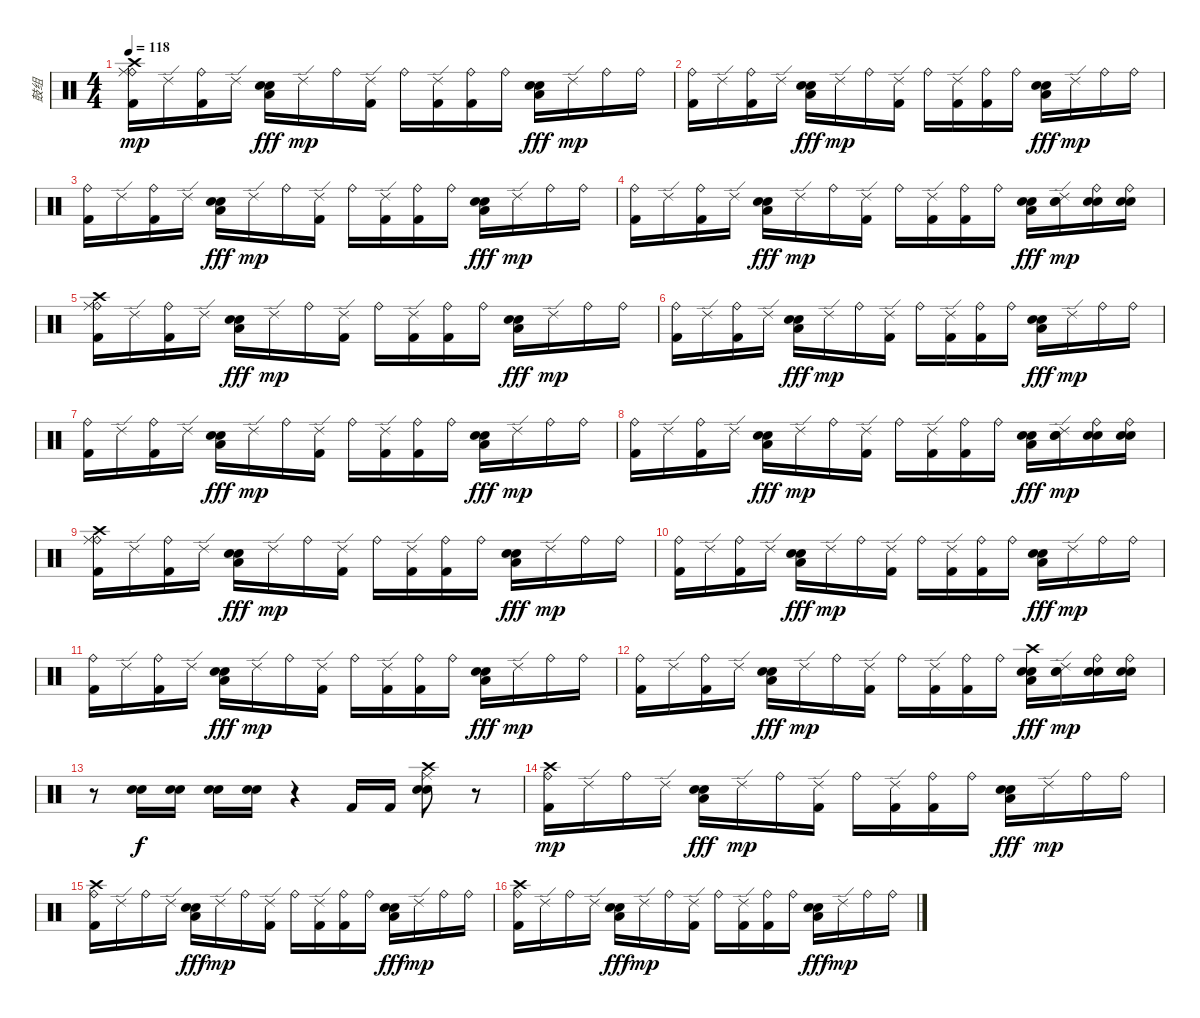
\track ("鼓组" "鼓组") {instrument percussion}
\staff {score}
\articulation defaults
\ts (4 4)
\tempo 118
\clef neutral
\ks c
("Ride (bell)" "Crash high (hit)" "Ride (middle)" "Kick (hit) 2").16{dy mp} "Ride (edge) 2".16 ("Ride (bell)" "Kick (hit) 2").16 "Ride (edge) 2".16 ("Low Tom (hit)" "Snare (hit) 2" "Electric Snare (hit)").16{dy fff} "Ride (edge) 2".16{dy mp} "Ride (bell)".16 ("Ride (edge) 2" "Kick (hit) 2").16 "Ride (bell)".16 ("Ride (edge) 2" "Kick (hit) 2").16 ("Ride (bell)" "Kick (hit) 2").16 "Ride (bell)".16 ("Low Tom (hit)" "Electric Snare (hit)" "Snare (hit) 2").16{dy fff} "Ride (edge) 2".16{dy mp} "Ride (bell)".16 "Ride (bell)".16 |
("Ride (bell)" "Kick (hit) 2").16 "Ride (edge) 2".16 ("Ride (bell)" "Kick (hit) 2").16 "Ride (edge) 2".16 ("Low Tom (hit)" "Snare (hit) 2" "Electric Snare (hit)").16{dy fff} "Ride (edge) 2".16{dy mp} "Ride (bell)".16 ("Ride (edge) 2" "Kick (hit) 2").16 "Ride (bell)".16 ("Ride (edge) 2" "Kick (hit) 2").16 ("Ride (bell)" "Kick (hit) 2").16 "Ride (bell)".16 ("Low Tom (hit)" "Electric Snare (hit)" "Snare (hit) 2").16{dy fff} "Ride (edge) 2".16{dy mp} "Ride (bell)".16 "Ride (bell)".16 |
("Ride (bell)" "Kick (hit) 2").16 "Ride (edge) 2".16 ("Ride (bell)" "Kick (hit) 2").16 "Ride (edge) 2".16 ("Low Tom (hit)" "Snare (hit) 2" "Electric Snare (hit)").16{dy fff} "Ride (edge) 2".16{dy mp} "Ride (bell)".16 ("Ride (edge) 2" "Kick (hit) 2").16 "Ride (bell)".16 ("Ride (edge) 2" "Kick (hit) 2").16 ("Ride (bell)" "Kick (hit) 2").16 "Ride (bell)".16 ("Low Tom (hit)" "Electric Snare (hit)" "Snare (hit) 2").16{dy fff} "Ride (edge) 2".16{dy mp} "Ride (bell)".16 "Ride (bell)".16 |
("Ride (bell)" "Kick (hit) 2").16 "Ride (edge) 2".16 ("Ride (bell)" "Kick (hit) 2").16 "Ride (edge) 2".16 ("Low Tom (hit)" "Snare (hit) 2" "Electric Snare (hit)").16{dy fff} "Ride (edge) 2".16{dy mp} "Ride (bell)".16 ("Ride (edge) 2" "Kick (hit) 2").16 "Ride (bell)".16 ("Ride (edge) 2" "Kick (hit) 2").16 ("Ride (bell)" "Kick (hit) 2").16 "Ride (bell)".16 ("Low Tom (hit)" "Electric Snare (hit)" "Snare (hit) 2").16{dy fff} ("Ride (edge) 2" "Electric Snare (hit)" "Snare (hit) 2").16{dy mp} ("Ride (bell)" "Electric Snare (hit)" "Snare (hit) 2").16 ("Ride (bell)" "Electric Snare (hit)" "Snare (hit) 2").16 |
("Ride (bell)" "Crash high (hit)" "Ride (middle)" "Kick (hit) 2").16 "Ride (edge) 2".16 ("Ride (bell)" "Kick (hit) 2").16 "Ride (edge) 2".16 ("Low Tom (hit)" "Snare (hit) 2" "Electric Snare (hit)").16{dy fff} "Ride (edge) 2".16{dy mp} "Ride (bell)".16 ("Ride (edge) 2" "Kick (hit) 2").16 "Ride (bell)".16 ("Ride (edge) 2" "Kick (hit) 2").16 ("Ride (bell)" "Kick (hit) 2").16 "Ride (bell)".16 ("Low Tom (hit)" "Electric Snare (hit)" "Snare (hit) 2").16{dy fff} "Ride (edge) 2".16{dy mp} "Ride (bell)".16 "Ride (bell)".16 |
("Ride (bell)" "Kick (hit) 2").16 "Ride (edge) 2".16 ("Ride (bell)" "Kick (hit) 2").16 "Ride (edge) 2".16 ("Low Tom (hit)" "Snare (hit) 2" "Electric Snare (hit)").16{dy fff} "Ride (edge) 2".16{dy mp} "Ride (bell)".16 ("Ride (edge) 2" "Kick (hit) 2").16 "Ride (bell)".16 ("Ride (edge) 2" "Kick (hit) 2").16 ("Ride (bell)" "Kick (hit) 2").16 "Ride (bell)".16 ("Low Tom (hit)" "Electric Snare (hit)" "Snare (hit) 2").16{dy fff} "Ride (edge) 2".16{dy mp} "Ride (bell)".16 "Ride (bell)".16 |
("Ride (bell)" "Kick (hit) 2").16 "Ride (edge) 2".16 ("Ride (bell)" "Kick (hit) 2").16 "Ride (edge) 2".16 ("Low Tom (hit)" "Snare (hit) 2" "Electric Snare (hit)").16{dy fff} "Ride (edge) 2".16{dy mp} "Ride (bell)".16 ("Ride (edge) 2" "Kick (hit) 2").16 "Ride (bell)".16 ("Ride (edge) 2" "Kick (hit) 2").16 ("Ride (bell)" "Kick (hit) 2").16 "Ride (bell)".16 ("Low Tom (hit)" "Electric Snare (hit)" "Snare (hit) 2").16{dy fff} "Ride (edge) 2".16{dy mp} "Ride (bell)".16 "Ride (bell)".16 |
("Ride (bell)" "Kick (hit) 2").16 "Ride (edge) 2".16 ("Ride (bell)" "Kick (hit) 2").16 "Ride (edge) 2".16 ("Low Tom (hit)" "Snare (hit) 2" "Electric Snare (hit)").16{dy fff} "Ride (edge) 2".16{dy mp} "Ride (bell)".16 ("Ride (edge) 2" "Kick (hit) 2").16 "Ride (bell)".16 ("Ride (edge) 2" "Kick (hit) 2").16 ("Ride (bell)" "Kick (hit) 2").16 "Ride (bell)".16 ("Low Tom (hit)" "Electric Snare (hit)" "Snare (hit) 2").16{dy fff} ("Ride (edge) 2" "Electric Snare (hit)" "Snare (hit) 2").16{dy mp} ("Ride (bell)" "Electric Snare (hit)" "Snare (hit) 2").16 ("Ride (bell)" "Electric Snare (hit)" "Snare (hit) 2").16 |
("Ride (bell)" "Crash high (hit)" "Ride (middle)" "Kick (hit) 2").16 "Ride (edge) 2".16 ("Ride (bell)" "Kick (hit) 2").16 "Ride (edge) 2".16 ("Low Tom (hit)" "Snare (hit) 2" "Electric Snare (hit)").16{dy fff} "Ride (edge) 2".16{dy mp} "Ride (bell)".16 ("Ride (edge) 2" "Kick (hit) 2").16 "Ride (bell)".16 ("Ride (edge) 2" "Kick (hit) 2").16 ("Ride (bell)" "Kick (hit) 2").16 "Ride (bell)".16 ("Low Tom (hit)" "Electric Snare (hit)" "Snare (hit) 2").16{dy fff} "Ride (edge) 2".16{dy mp} "Ride (bell)".16 "Ride (bell)".16 |
("Ride (bell)" "Kick (hit) 2").16 "Ride (edge) 2".16 ("Ride (bell)" "Kick (hit) 2").16 "Ride (edge) 2".16 ("Low Tom (hit)" "Snare (hit) 2" "Electric Snare (hit)").16{dy fff} "Ride (edge) 2".16{dy mp} "Ride (bell)".16 ("Ride (edge) 2" "Kick (hit) 2").16 "Ride (bell)".16 ("Ride (edge) 2" "Kick (hit) 2").16 ("Ride (bell)" "Kick (hit) 2").16 "Ride (bell)".16 ("Low Tom (hit)" "Electric Snare (hit)" "Snare (hit) 2").16{dy fff} "Ride (edge) 2".16{dy mp} "Ride (bell)".16 "Ride (bell)".16 |
("Ride (bell)" "Kick (hit) 2").16 "Ride (edge) 2".16 ("Ride (bell)" "Kick (hit) 2").16 "Ride (edge) 2".16 ("Low Tom (hit)" "Snare (hit) 2" "Electric Snare (hit)").16{dy fff} "Ride (edge) 2".16{dy mp} "Ride (bell)".16 ("Ride (edge) 2" "Kick (hit) 2").16 "Ride (bell)".16 ("Ride (edge) 2" "Kick (hit) 2").16 ("Ride (bell)" "Kick (hit) 2").16 "Ride (bell)".16 ("Low Tom (hit)" "Electric Snare (hit)" "Snare (hit) 2").16{dy fff} "Ride (edge) 2".16{dy mp} "Ride (bell)".16 "Ride (bell)".16 |
("Ride (bell)" "Kick (hit) 2").16 "Ride (edge) 2".16 ("Ride (bell)" "Kick (hit) 2").16 "Ride (edge) 2".16 ("Low Tom (hit)" "Snare (hit) 2" "Electric Snare (hit)").16{dy fff} "Ride (edge) 2".16{dy mp} "Ride (bell)".16 ("Ride (edge) 2" "Kick (hit) 2").16 "Ride (bell)".16 ("Ride (edge) 2" "Kick (hit) 2").16 ("Ride (bell)" "Kick (hit) 2").16 "Ride (bell)".16 ("Low Tom (hit)" "Electric Snare (hit)" "Snare (hit) 2" "Crash high (hit)").16{dy fff} ("Ride (edge) 2" "Electric Snare (hit)" "Snare (hit) 2").16{dy mp} ("Ride (bell)" "Electric Snare (hit)" "Snare (hit) 2").16 ("Ride (bell)" "Electric Snare (hit)" "Snare (hit) 2").16 |
r.8 ("Electric Snare (hit)" "Snare (hit) 2").16{dy f} ("Electric Snare (hit)" "Snare (hit) 2").16 ("Electric Snare (hit)" "Snare (hit) 2").16 ("Electric Snare (hit)" "Snare (hit) 2").16 r.4 "Kick (hit) 2".16 "Kick (hit) 2".16 ("Ride (middle)" "Crash high (hit)" "Electric Snare (hit)" "Snare (hit) 2").8 r.8 |
("Ride (bell)" "Crash high (hit)" "Kick (hit) 2").16{dy mp} "Ride (edge) 2".16 "Ride (bell)".16 "Ride (edge) 2".16 ("Low Tom (hit)" "Snare (hit) 2" "Electric Snare (hit)").16{dy fff} "Ride (edge) 2".16{dy mp} "Ride (bell)".16 ("Ride (edge) 2" "Kick (hit) 2").16 "Ride (bell)".16 ("Ride (edge) 2" "Kick (hit) 2").16 ("Ride (bell)" "Kick (hit) 2").16 "Ride (bell)".16 ("Low Tom (hit)" "Electric Snare (hit)" "Snare (hit) 2").16{dy fff} "Ride (edge) 2".16{dy mp} "Ride (bell)".16 "Ride (bell)".16 |
("Ride (bell)" "Crash high (hit)" "Kick (hit) 2").16 "Ride (edge) 2".16 "Ride (bell)".16 "Ride (edge) 2".16 ("Low Tom (hit)" "Snare (hit) 2" "Electric Snare (hit)").16{dy fff} "Ride (edge) 2".16{dy mp} "Ride (bell)".16 ("Ride (edge) 2" "Kick (hit) 2").16 "Ride (bell)".16 ("Ride (edge) 2" "Kick (hit) 2").16 ("Ride (bell)" "Kick (hit) 2").16 "Ride (bell)".16 ("Low Tom (hit)" "Electric Snare (hit)" "Snare (hit) 2").16{dy fff} "Ride (edge) 2".16{dy mp} "Ride (bell)".16 "Ride (bell)".16 |
("Ride (bell)" "Crash high (hit)" "Kick (hit) 2").16 "Ride (edge) 2".16 "Ride (bell)".16 "Ride (edge) 2".16 ("Low Tom (hit)" "Snare (hit) 2" "Electric Snare (hit)").16{dy fff} "Ride (edge) 2".16{dy mp} "Ride (bell)".16 ("Ride (edge) 2" "Kick (hit) 2").16 "Ride (bell)".16 ("Ride (edge) 2" "Kick (hit) 2").16 ("Ride (bell)" "Kick (hit) 2").16 "Ride (bell)".16 ("Low Tom (hit)" "Electric Snare (hit)" "Snare (hit) 2").16{dy fff} "Ride (edge) 2".16{dy mp} "Ride (bell)".16 "Ride (bell)".16
